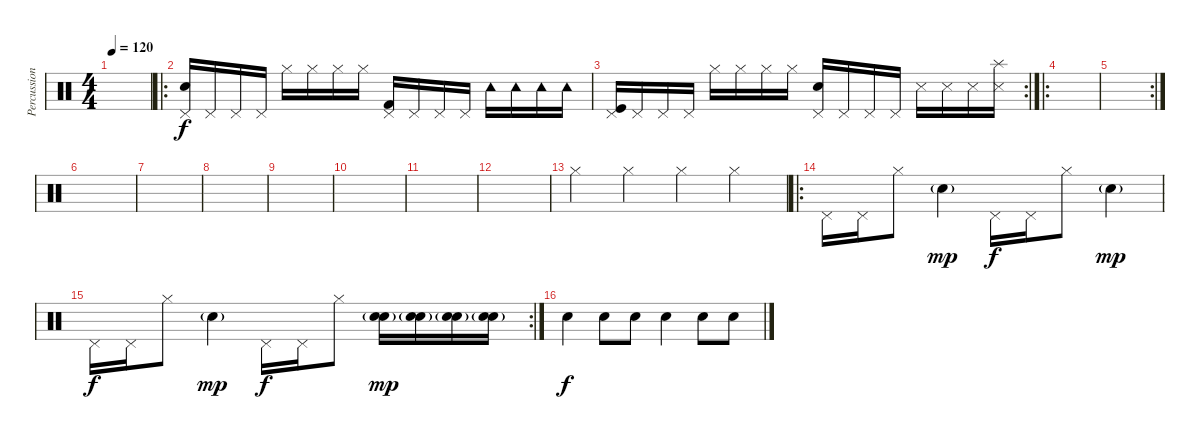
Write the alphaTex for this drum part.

\track ("Percussions" "Percussion") {instrument percussion}
\staff {score}
\articulation defaults
\ts (4 4)
\tempo 120
\clef neutral
\ks c
|
\ro
("Pedal Hi-Hat (hit)" "Snare (hit) 2").16 "Pedal Hi-Hat (hit)".16 "Pedal Hi-Hat (hit)".16 "Pedal Hi-Hat (hit)".16 "Hi-Hat (closed)".16 "Hi-Hat (closed)".16 "Hi-Hat (closed)".16 "Hi-Hat (closed)".16 ("Pedal Hi-Hat (hit)" "Kick (hit) 2").16 "Pedal Hi-Hat (hit)".16 "Pedal Hi-Hat (hit)".16 "Pedal Hi-Hat (hit)".16 "Tambourine (hit)".16 "Tambourine (hit)".16 "Tambourine (hit)".16 "Tambourine (hit)".16 |
\rc 2
("Pedal Hi-Hat (hit)" "Kick (hit)").16 "Pedal Hi-Hat (hit)".16 "Pedal Hi-Hat (hit)".16 "Pedal Hi-Hat (hit)".16 "Hi-Hat (closed)".16 "Hi-Hat (closed)".16 "Hi-Hat (closed)".16 "Hi-Hat (closed)".16 ("Pedal Hi-Hat (hit)" "Electric Snare (hit)").16 "Pedal Hi-Hat (hit)".16 "Pedal Hi-Hat (hit)".16 "Pedal Hi-Hat (hit)".16 "Snare (side stick) 3".16 "Snare (side stick) 3".16 "Snare (side stick) 3".16 ("Snare (side stick) 3" "Splash (hit)").16 |
\ro
|
\rc 2
|
|
|
|
|
|
|
|
"Hi-Hat (closed)".4 "Hi-Hat (closed)".4 "Hi-Hat (closed)".4 "Hi-Hat (closed)".4 |
\ro "Pedal Hi-Hat (hit)".16 "Pedal Hi-Hat (hit)".16 "Hi-Hat (closed)".8 "Hand Clap (hit)"{g}.4{dy mp} "Pedal Hi-Hat (hit)".16{dy f} "Pedal Hi-Hat (hit)".16 "Hi-Hat (closed)".8 "Hand Clap (hit)"{g}.4{dy mp}
|
\rc 2 "Pedal Hi-Hat (hit)".16{dy f} "Pedal Hi-Hat (hit)".16 "Hi-Hat (closed)".8 "Hand Clap (hit)"{g}.4{dy mp} "Pedal Hi-Hat (hit)".16{dy f} "Pedal Hi-Hat (hit)".16 "Hi-Hat (closed)".8
("Electric Snare (hit)" "Hand Clap (hit)"{g}).16{dy mp} ("Electric Snare (hit)"{g} "Hand Clap (hit)").16 ("Electric Snare (hit)" "Hand Clap (hit)"{g}).16 ("Electric Snare (hit)"{g} "Hand Clap (hit)").16 |
"Electric Snare (hit)".4{dy f} "Hand Clap (hit)".8 "Hand Clap (hit)".8 "Electric Snare (hit)".4 "Hand Clap (hit)".8 "Hand Clap (hit)".8
